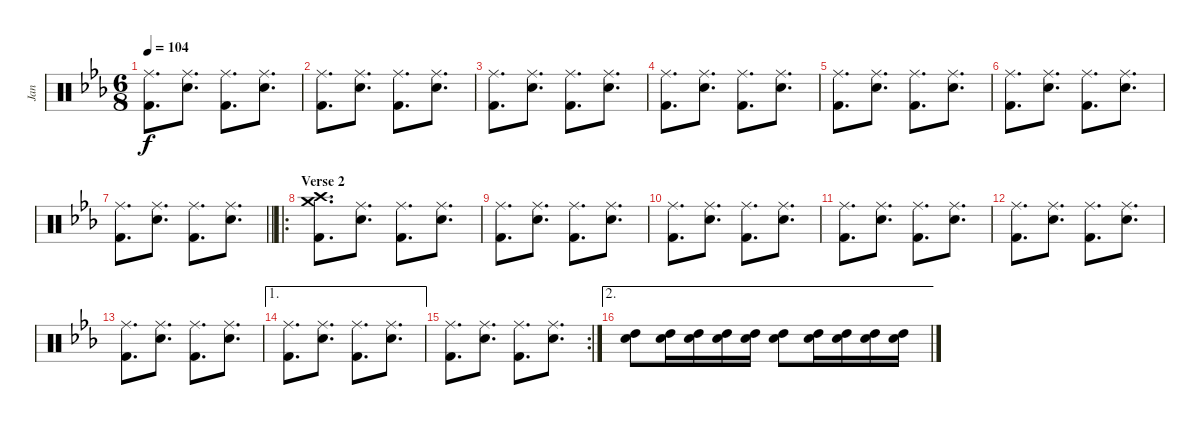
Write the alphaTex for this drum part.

\track ("Jan" "Jan") {instrument percussion}
\staff {score}
\articulation defaults
\ts (6 8)
\tempo 104
\clef neutral
\ks eb
("Ride (middle)" "Kick (hit) 2").8{d dy f} ("Snare (hit) 2" "Ride (middle)").8{d} ("Ride (middle)" "Kick (hit) 2").8{d} ("Snare (hit) 2" "Ride (middle)").8{d} |
("Ride (middle)" "Kick (hit) 2").8{d} ("Snare (hit) 2" "Ride (middle)").8{d} ("Ride (middle)" "Kick (hit) 2").8{d} ("Snare (hit) 2" "Ride (middle)").8{d} |
("Ride (middle)" "Kick (hit) 2").8{d} ("Snare (hit) 2" "Ride (middle)").8{d} ("Ride (middle)" "Kick (hit) 2").8{d} ("Snare (hit) 2" "Ride (middle)").8{d} |
("Ride (middle)" "Kick (hit) 2").8{d} ("Snare (hit) 2" "Ride (middle)").8{d} ("Ride (middle)" "Kick (hit) 2").8{d} ("Snare (hit) 2" "Ride (middle)").8{d} |
("Ride (middle)" "Kick (hit) 2").8{d} ("Snare (hit) 2" "Ride (middle)").8{d} ("Ride (middle)" "Kick (hit) 2").8{d} ("Snare (hit) 2" "Ride (middle)").8{d} |
("Ride (middle)" "Kick (hit) 2").8{d} ("Snare (hit) 2" "Ride (middle)").8{d} ("Ride (middle)" "Kick (hit) 2").8{d} ("Snare (hit) 2" "Ride (middle)").8{d} |
\barLineRight lightlight
("Ride (middle)" "Kick (hit) 2").8{d} ("Snare (hit) 2" "Ride (middle)").8{d} ("Ride (middle)" "Kick (hit) 2").8{d} ("Snare (hit) 2" "Ride (middle)").8{d} |
\ro
\section ("" "Verse 2")
("Crash medium (hit)" "Crash high (hit)" "Kick (hit) 2").8{d} ("Snare (hit) 2" "Ride (middle)").8{d} ("Ride (middle)" "Kick (hit) 2").8{d} ("Snare (hit) 2" "Ride (middle)").8{d} |
("Ride (middle)" "Kick (hit) 2").8{d} ("Snare (hit) 2" "Ride (middle)").8{d} ("Ride (middle)" "Kick (hit) 2").8{d} ("Snare (hit) 2" "Ride (middle)").8{d} |
("Ride (middle)" "Kick (hit) 2").8{d} ("Snare (hit) 2" "Ride (middle)").8{d} ("Ride (middle)" "Kick (hit) 2").8{d} ("Snare (hit) 2" "Ride (middle)").8{d} |
("Ride (middle)" "Kick (hit) 2").8{d} ("Snare (hit) 2" "Ride (middle)").8{d} ("Ride (middle)" "Kick (hit) 2").8{d} ("Snare (hit) 2" "Ride (middle)").8{d} |
("Ride (middle)" "Kick (hit) 2").8{d} ("Snare (hit) 2" "Ride (middle)").8{d} ("Ride (middle)" "Kick (hit) 2").8{d} ("Snare (hit) 2" "Ride (middle)").8{d} |
("Ride (middle)" "Kick (hit) 2").8{d} ("Snare (hit) 2" "Ride (middle)").8{d} ("Ride (middle)" "Kick (hit) 2").8{d} ("Snare (hit) 2" "Ride (middle)").8{d} |
\ae 1
("Ride (middle)" "Kick (hit) 2").8{d} ("Snare (hit) 2" "Ride (middle)").8{d} ("Ride (middle)" "Kick (hit) 2").8{d} ("Snare (hit) 2" "Ride (middle)").8{d} |
\rc 2
("Ride (middle)" "Kick (hit) 2").8{d} ("Snare (hit) 2" "Ride (middle)").8{d} ("Ride (middle)" "Kick (hit) 2").8{d} ("Snare (hit) 2" "Ride (middle)").8{d} |
\ae 2
("High Tom (hit)" "Snare (hit) 2").8 ("High Tom (hit)" "Snare (hit) 2").16 ("High Tom (hit)" "Snare (hit) 2").16 ("High Tom (hit)" "Snare (hit) 2").16 ("High Tom (hit)" "Snare (hit) 2").16 ("High Tom (hit)" "Snare (hit) 2").8 ("High Tom (hit)" "Snare (hit) 2").16 ("High Tom (hit)" "Snare (hit) 2").16 ("High Tom (hit)" "Snare (hit) 2").16 ("High Tom (hit)" "Snare (hit) 2").16
